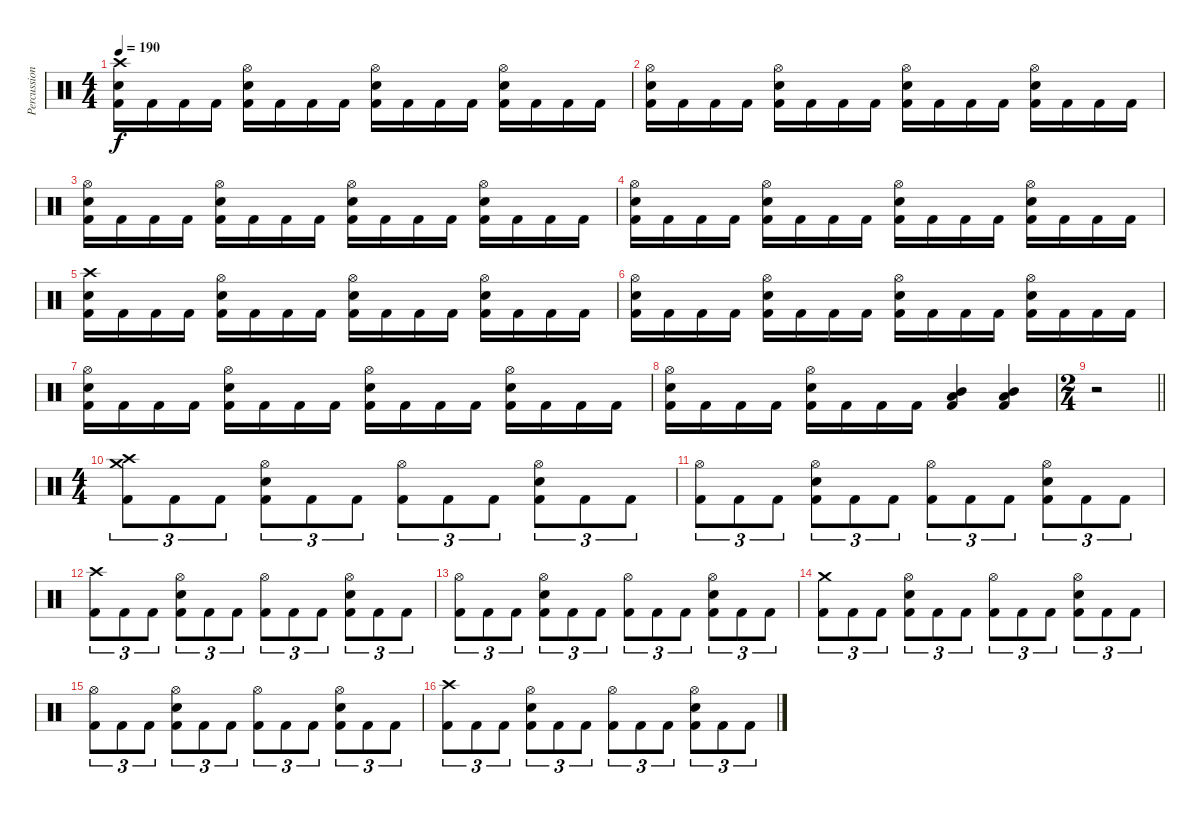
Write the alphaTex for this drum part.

\track ("Percussion" "Percussion") {instrument percussion}
\staff {score}
\articulation defaults
\ts (4 4)
\tempo 190
\clef neutral
\ks c
("Crash high (hit)" "Snare (hit) 2" "Kick (hit) 2").16{dy f} "Kick (hit) 2".16 "Kick (hit) 2".16 "Kick (hit) 2".16 ("Hi-Hat (open)" "Snare (hit) 2" "Kick (hit) 2").16 "Kick (hit) 2".16 "Kick (hit) 2".16 "Kick (hit) 2".16 ("Hi-Hat (open)" "Snare (hit) 2" "Kick (hit) 2").16 "Kick (hit) 2".16 "Kick (hit) 2".16 "Kick (hit) 2".16 ("Hi-Hat (open)" "Snare (hit) 2" "Kick (hit) 2").16 "Kick (hit) 2".16 "Kick (hit) 2".16 "Kick (hit) 2".16 |
("Hi-Hat (open)" "Snare (hit) 2" "Kick (hit) 2").16 "Kick (hit) 2".16 "Kick (hit) 2".16 "Kick (hit) 2".16 ("Hi-Hat (open)" "Snare (hit) 2" "Kick (hit) 2").16 "Kick (hit) 2".16 "Kick (hit) 2".16 "Kick (hit) 2".16 ("Hi-Hat (open)" "Snare (hit) 2" "Kick (hit) 2").16 "Kick (hit) 2".16 "Kick (hit) 2".16 "Kick (hit) 2".16 ("Hi-Hat (open)" "Snare (hit) 2" "Kick (hit) 2").16 "Kick (hit) 2".16 "Kick (hit) 2".16 "Kick (hit) 2".16 |
("Hi-Hat (open)" "Snare (hit) 2" "Kick (hit) 2").16 "Kick (hit) 2".16 "Kick (hit) 2".16 "Kick (hit) 2".16 ("Hi-Hat (open)" "Snare (hit) 2" "Kick (hit) 2").16 "Kick (hit) 2".16 "Kick (hit) 2".16 "Kick (hit) 2".16 ("Hi-Hat (open)" "Snare (hit) 2" "Kick (hit) 2").16 "Kick (hit) 2".16 "Kick (hit) 2".16 "Kick (hit) 2".16 ("Hi-Hat (open)" "Snare (hit) 2" "Kick (hit) 2").16 "Kick (hit) 2".16 "Kick (hit) 2".16 "Kick (hit) 2".16 |
("Hi-Hat (open)" "Snare (hit) 2" "Kick (hit) 2").16 "Kick (hit) 2".16 "Kick (hit) 2".16 "Kick (hit) 2".16 ("Hi-Hat (open)" "Snare (hit) 2" "Kick (hit) 2").16 "Kick (hit) 2".16 "Kick (hit) 2".16 "Kick (hit) 2".16 ("Hi-Hat (open)" "Snare (hit) 2" "Kick (hit) 2").16 "Kick (hit) 2".16 "Kick (hit) 2".16 "Kick (hit) 2".16 ("Hi-Hat (open)" "Snare (hit) 2" "Kick (hit) 2").16 "Kick (hit) 2".16 "Kick (hit) 2".16 "Kick (hit) 2".16 |
("Crash high (hit)" "Snare (hit) 2" "Kick (hit) 2").16 "Kick (hit) 2".16 "Kick (hit) 2".16 "Kick (hit) 2".16 ("Hi-Hat (open)" "Snare (hit) 2" "Kick (hit) 2").16 "Kick (hit) 2".16 "Kick (hit) 2".16 "Kick (hit) 2".16 ("Hi-Hat (open)" "Snare (hit) 2" "Kick (hit) 2").16 "Kick (hit) 2".16 "Kick (hit) 2".16 "Kick (hit) 2".16 ("Hi-Hat (open)" "Snare (hit) 2" "Kick (hit) 2").16 "Kick (hit) 2".16 "Kick (hit) 2".16 "Kick (hit) 2".16 |
("Hi-Hat (open)" "Snare (hit) 2" "Kick (hit) 2").16 "Kick (hit) 2".16 "Kick (hit) 2".16 "Kick (hit) 2".16 ("Hi-Hat (open)" "Snare (hit) 2" "Kick (hit) 2").16 "Kick (hit) 2".16 "Kick (hit) 2".16 "Kick (hit) 2".16 ("Hi-Hat (open)" "Snare (hit) 2" "Kick (hit) 2").16 "Kick (hit) 2".16 "Kick (hit) 2".16 "Kick (hit) 2".16 ("Hi-Hat (open)" "Snare (hit) 2" "Kick (hit) 2").16 "Kick (hit) 2".16 "Kick (hit) 2".16 "Kick (hit) 2".16 |
("Hi-Hat (open)" "Snare (hit) 2" "Kick (hit) 2").16 "Kick (hit) 2".16 "Kick (hit) 2".16 "Kick (hit) 2".16 ("Hi-Hat (open)" "Snare (hit) 2" "Kick (hit) 2").16 "Kick (hit) 2".16 "Kick (hit) 2".16 "Kick (hit) 2".16 ("Hi-Hat (open)" "Snare (hit) 2" "Kick (hit) 2").16 "Kick (hit) 2".16 "Kick (hit) 2".16 "Kick (hit) 2".16 ("Hi-Hat (open)" "Snare (hit) 2" "Kick (hit) 2").16 "Kick (hit) 2".16 "Kick (hit) 2".16 "Kick (hit) 2".16 |
("Hi-Hat (open)" "Snare (hit) 2" "Kick (hit) 2").16 "Kick (hit) 2".16 "Kick (hit) 2".16 "Kick (hit) 2".16 ("Hi-Hat (open)" "Snare (hit) 2" "Kick (hit) 2").16 "Kick (hit) 2".16 "Kick (hit) 2".16 "Kick (hit) 2".16 ("Mid Tom (hit)" "Low Tom (hit)" "Kick (hit) 2").4 ("Mid Tom (hit)" "Low Tom (hit)" "Kick (hit) 2").4 |
\ts (2 4)
\barLineRight lightlight
r.2 |
\ts (4 4)
("Crash medium (hit)" "Crash high (hit)" "Kick (hit) 2").8{tu (3 2)} "Kick (hit) 2".8{tu (3 2)} "Kick (hit) 2".8{tu (3 2)} ("Hi-Hat (open)" "Snare (hit) 2" "Kick (hit) 2").8{tu (3 2)} "Kick (hit) 2".8{tu (3 2)} "Kick (hit) 2".8{tu (3 2)} ("Hi-Hat (open)" "Kick (hit) 2").8{tu (3 2)} "Kick (hit) 2".8{tu (3 2)} "Kick (hit) 2".8{tu (3 2)} ("Hi-Hat (open)" "Snare (hit) 2" "Kick (hit) 2").8{tu (3 2)} "Kick (hit) 2".8{tu (3 2)} "Kick (hit) 2".8{tu (3 2)} |
("Hi-Hat (open)" "Kick (hit) 2").8{tu (3 2)} "Kick (hit) 2".8{tu (3 2)} "Kick (hit) 2".8{tu (3 2)} ("Hi-Hat (open)" "Snare (hit) 2" "Kick (hit) 2").8{tu (3 2)} "Kick (hit) 2".8{tu (3 2)} "Kick (hit) 2".8{tu (3 2)} ("Hi-Hat (open)" "Kick (hit) 2").8{tu (3 2)} "Kick (hit) 2".8{tu (3 2)} "Kick (hit) 2".8{tu (3 2)} ("Hi-Hat (open)" "Snare (hit) 2" "Kick (hit) 2").8{tu (3 2)} "Kick (hit) 2".8{tu (3 2)} "Kick (hit) 2".8{tu (3 2)} |
("Crash high (hit)" "Kick (hit) 2").8{tu (3 2)} "Kick (hit) 2".8{tu (3 2)} "Kick (hit) 2".8{tu (3 2)} ("Hi-Hat (open)" "Snare (hit) 2" "Kick (hit) 2").8{tu (3 2)} "Kick (hit) 2".8{tu (3 2)} "Kick (hit) 2".8{tu (3 2)} ("Hi-Hat (open)" "Kick (hit) 2").8{tu (3 2)} "Kick (hit) 2".8{tu (3 2)} "Kick (hit) 2".8{tu (3 2)} ("Hi-Hat (open)" "Snare (hit) 2" "Kick (hit) 2").8{tu (3 2)} "Kick (hit) 2".8{tu (3 2)} "Kick (hit) 2".8{tu (3 2)} |
("Hi-Hat (open)" "Kick (hit) 2").8{tu (3 2)} "Kick (hit) 2".8{tu (3 2)} "Kick (hit) 2".8{tu (3 2)} ("Hi-Hat (open)" "Snare (hit) 2" "Kick (hit) 2").8{tu (3 2)} "Kick (hit) 2".8{tu (3 2)} "Kick (hit) 2".8{tu (3 2)} ("Hi-Hat (open)" "Kick (hit) 2").8{tu (3 2)} "Kick (hit) 2".8{tu (3 2)} "Kick (hit) 2".8{tu (3 2)} ("Hi-Hat (open)" "Snare (hit) 2" "Kick (hit) 2").8{tu (3 2)} "Kick (hit) 2".8{tu (3 2)} "Kick (hit) 2".8{tu (3 2)} |
("Crash medium (hit)" "Kick (hit) 2").8{tu (3 2)} "Kick (hit) 2".8{tu (3 2)} "Kick (hit) 2".8{tu (3 2)} ("Hi-Hat (open)" "Snare (hit) 2" "Kick (hit) 2").8{tu (3 2)} "Kick (hit) 2".8{tu (3 2)} "Kick (hit) 2".8{tu (3 2)} ("Hi-Hat (open)" "Kick (hit) 2").8{tu (3 2)} "Kick (hit) 2".8{tu (3 2)} "Kick (hit) 2".8{tu (3 2)} ("Hi-Hat (open)" "Snare (hit) 2" "Kick (hit) 2").8{tu (3 2)} "Kick (hit) 2".8{tu (3 2)} "Kick (hit) 2".8{tu (3 2)} |
("Hi-Hat (open)" "Kick (hit) 2").8{tu (3 2)} "Kick (hit) 2".8{tu (3 2)} "Kick (hit) 2".8{tu (3 2)} ("Hi-Hat (open)" "Snare (hit) 2" "Kick (hit) 2").8{tu (3 2)} "Kick (hit) 2".8{tu (3 2)} "Kick (hit) 2".8{tu (3 2)} ("Hi-Hat (open)" "Kick (hit) 2").8{tu (3 2)} "Kick (hit) 2".8{tu (3 2)} "Kick (hit) 2".8{tu (3 2)} ("Hi-Hat (open)" "Snare (hit) 2" "Kick (hit) 2").8{tu (3 2)} "Kick (hit) 2".8{tu (3 2)} "Kick (hit) 2".8{tu (3 2)} |
("Crash high (hit)" "Kick (hit) 2").8{tu (3 2)} "Kick (hit) 2".8{tu (3 2)} "Kick (hit) 2".8{tu (3 2)} ("Hi-Hat (open)" "Snare (hit) 2" "Kick (hit) 2").8{tu (3 2)} "Kick (hit) 2".8{tu (3 2)} "Kick (hit) 2".8{tu (3 2)} ("Hi-Hat (open)" "Kick (hit) 2").8{tu (3 2)} "Kick (hit) 2".8{tu (3 2)} "Kick (hit) 2".8{tu (3 2)} ("Hi-Hat (open)" "Snare (hit) 2" "Kick (hit) 2").8{tu (3 2)} "Kick (hit) 2".8{tu (3 2)} "Kick (hit) 2".8{tu (3 2)}
